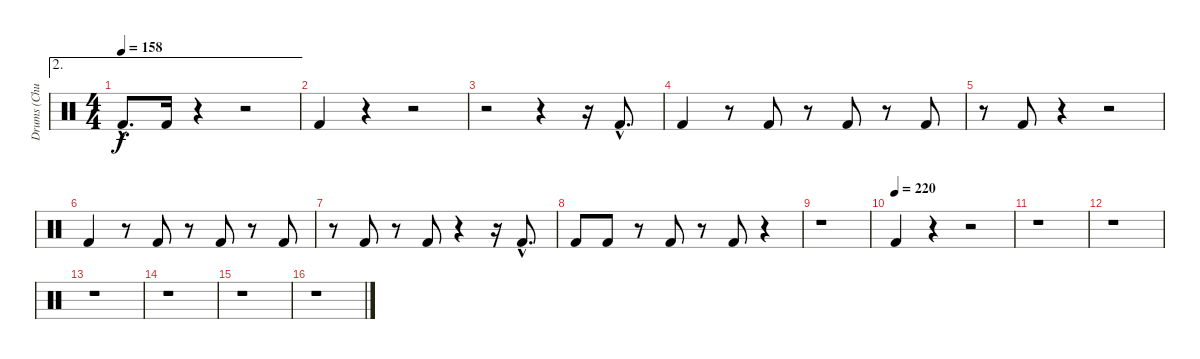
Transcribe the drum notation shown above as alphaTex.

\track ("Drums (Chuck Behler)" "Drums (Chu") {instrument percussion}
\staff {score}
\articulation defaults
\ae 2
\ts (4 4)
\tempo 158
\clef neutral
\ks c "Kick (hit) 2"{hac}.8{d dy f} "Kick (hit) 2".16
r.4 r.2 |
"Kick (hit) 2".4 r.4 r.2 |
r.2 r.4 r.16 "Kick (hit) 2"{hac}.8{d} |
"Kick (hit) 2".4 r.8 "Kick (hit) 2".8 r.8 "Kick (hit) 2".8 r.8 "Kick (hit) 2".8 |
r.8 "Kick (hit) 2".8 r.4 r.2 |
"Kick (hit) 2".4 r.8 "Kick (hit) 2".8 r.8 "Kick (hit) 2".8 r.8 "Kick (hit) 2".8 |
r.8 "Kick (hit) 2".8 r.8 "Kick (hit) 2".8 r.4 r.16 "Kick (hit) 2"{hac}.8{d} |
"Kick (hit) 2".8 "Kick (hit) 2".8 r.8 "Kick (hit) 2".8 r.8 "Kick (hit) 2".8 r.4 |
r.1 |
\tempo (220)
"Kick (hit) 2".4 r.4 r.2 |
r.1 |
r.1 |
r.1 |
r.1 |
r.1 |
r.1
